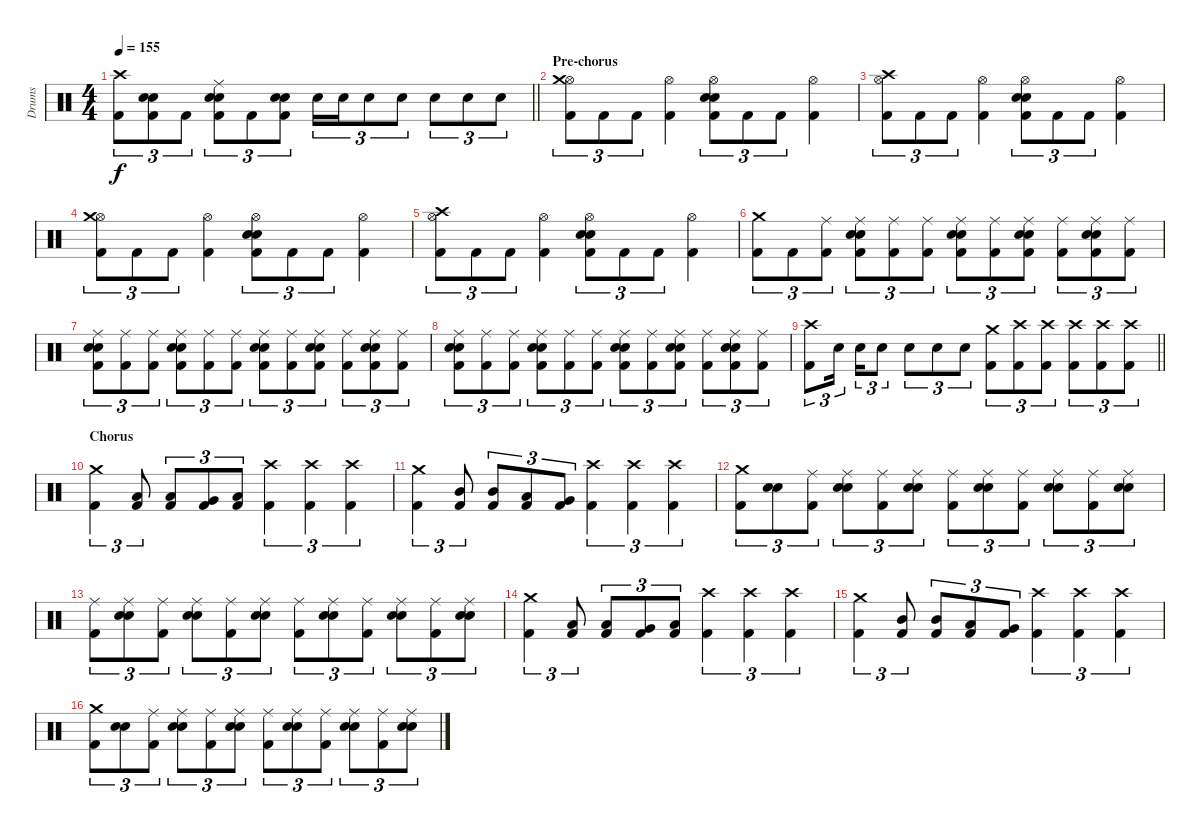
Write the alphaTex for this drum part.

\track ("Drums" "Drums") {instrument percussion}
\staff {score}
\articulation defaults
\ts (4 4)
\tempo 155
\clef neutral
\barLineRight lightlight
\ks c
("Crash high (hit)" "Kick (hit) 2").8{tu (3 2) dy f} ("Electric Snare (hit)" "Electric Snare (hit)" "Kick (hit) 2").8{tu (3 2)} "Kick (hit) 2".8{tu (3 2)} ("Ride (middle)" "Electric Snare (hit)" "Electric Snare (hit)" "Kick (hit) 2").8{tu (3 2)} "Kick (hit) 2".8{tu (3 2)} ("Electric Snare (hit)" "Electric Snare (hit)" "Kick (hit) 2").8{tu (3 2)} "Electric Snare (hit)".16{tu (3 2)} "Electric Snare (hit)".16{tu (3 2)} "Electric Snare (hit)".8{tu (3 2)} "Electric Snare (hit)".8{tu (3 2)} "Electric Snare (hit)".8{tu (3 2)} "Electric Snare (hit)".8{tu (3 2)} "Electric Snare (hit)".8{tu (3 2)} |
\section ("" "Pre-chorus")
("Hi-Hat (open)" "Crash medium (hit)" "Kick (hit) 2").8{tu (3 2)} "Kick (hit) 2".8{tu (3 2)} "Kick (hit) 2".8{tu (3 2)} ("Hi-Hat (open)" "Kick (hit) 2").4 ("Hi-Hat (open)" "Electric Snare (hit)" "Electric Snare (hit)" "Kick (hit) 2").8{tu (3 2)} "Kick (hit) 2".8{tu (3 2)} "Kick (hit) 2".8{tu (3 2)} ("Hi-Hat (open)" "Kick (hit) 2").4 |
("Hi-Hat (open)" "Crash high (hit)" "Kick (hit) 2").8{tu (3 2)} "Kick (hit) 2".8{tu (3 2)} "Kick (hit) 2".8{tu (3 2)} ("Hi-Hat (open)" "Kick (hit) 2").4 ("Hi-Hat (open)" "Electric Snare (hit)" "Electric Snare (hit)" "Kick (hit) 2").8{tu (3 2)} "Kick (hit) 2".8{tu (3 2)} "Kick (hit) 2".8{tu (3 2)} ("Hi-Hat (open)" "Kick (hit) 2").4 |
("Hi-Hat (open)" "Crash medium (hit)" "Kick (hit) 2").8{tu (3 2)} "Kick (hit) 2".8{tu (3 2)} "Kick (hit) 2".8{tu (3 2)} ("Hi-Hat (open)" "Kick (hit) 2").4 ("Hi-Hat (open)" "Electric Snare (hit)" "Electric Snare (hit)" "Kick (hit) 2").8{tu (3 2)} "Kick (hit) 2".8{tu (3 2)} "Kick (hit) 2".8{tu (3 2)} ("Hi-Hat (open)" "Kick (hit) 2").4 |
("Hi-Hat (open)" "Crash high (hit)" "Kick (hit) 2").8{tu (3 2)} "Kick (hit) 2".8{tu (3 2)} "Kick (hit) 2".8{tu (3 2)} ("Hi-Hat (open)" "Kick (hit) 2").4 ("Hi-Hat (open)" "Electric Snare (hit)" "Electric Snare (hit)" "Kick (hit) 2").8{tu (3 2)} "Kick (hit) 2".8{tu (3 2)} "Kick (hit) 2".8{tu (3 2)} ("Hi-Hat (open)" "Kick (hit) 2").4 |
("Crash medium (hit)" "Kick (hit) 2").8{tu (3 2)} "Kick (hit) 2".8{tu (3 2)} ("Ride (middle)" "Kick (hit) 2").8{tu (3 2)} ("Ride (middle)" "Electric Snare (hit)" "Electric Snare (hit)" "Kick (hit) 2").8{tu (3 2)} ("Ride (middle)" "Kick (hit) 2").8{tu (3 2)} ("Ride (middle)" "Kick (hit) 2").8{tu (3 2)} ("Ride (middle)" "Electric Snare (hit)" "Electric Snare (hit)" "Kick (hit) 2").8{tu (3 2)} ("Ride (middle)" "Kick (hit) 2").8{tu (3 2)} ("Ride (middle)" "Electric Snare (hit)" "Electric Snare (hit)" "Kick (hit) 2").8{tu (3 2)} ("Ride (middle)" "Kick (hit) 2").8{tu (3 2)} ("Ride (middle)" "Electric Snare (hit)" "Electric Snare (hit)" "Kick (hit) 2").8{tu (3 2)} ("Ride (middle)" "Kick (hit) 2").8{tu (3 2)} |
("Ride (middle)" "Electric Snare (hit)" "Electric Snare (hit)" "Kick (hit) 2").8{tu (3 2)} ("Ride (middle)" "Kick (hit) 2").8{tu (3 2)} ("Ride (middle)" "Kick (hit) 2").8{tu (3 2)} ("Ride (middle)" "Electric Snare (hit)" "Electric Snare (hit)" "Kick (hit) 2").8{tu (3 2)} ("Ride (middle)" "Kick (hit) 2").8{tu (3 2)} ("Ride (middle)" "Kick (hit) 2").8{tu (3 2)} ("Ride (middle)" "Electric Snare (hit)" "Electric Snare (hit)" "Kick (hit) 2").8{tu (3 2)} ("Ride (middle)" "Kick (hit) 2").8{tu (3 2)} ("Ride (middle)" "Electric Snare (hit)" "Electric Snare (hit)" "Kick (hit) 2").8{tu (3 2)} ("Ride (middle)" "Kick (hit) 2").8{tu (3 2)} ("Ride (middle)" "Electric Snare (hit)" "Electric Snare (hit)" "Kick (hit) 2").8{tu (3 2)} ("Ride (middle)" "Kick (hit) 2").8{tu (3 2)} |
("Ride (middle)" "Electric Snare (hit)" "Electric Snare (hit)" "Kick (hit) 2").8{tu (3 2)} ("Ride (middle)" "Kick (hit) 2").8{tu (3 2)} ("Ride (middle)" "Kick (hit) 2").8{tu (3 2)} ("Ride (middle)" "Electric Snare (hit)" "Electric Snare (hit)" "Kick (hit) 2").8{tu (3 2)} ("Ride (middle)" "Kick (hit) 2").8{tu (3 2)} ("Ride (middle)" "Kick (hit) 2").8{tu (3 2)} ("Ride (middle)" "Electric Snare (hit)" "Electric Snare (hit)" "Kick (hit) 2").8{tu (3 2)} ("Ride (middle)" "Kick (hit) 2").8{tu (3 2)} ("Ride (middle)" "Electric Snare (hit)" "Electric Snare (hit)" "Kick (hit) 2").8{tu (3 2)} ("Ride (middle)" "Kick (hit) 2").8{tu (3 2)} ("Ride (middle)" "Electric Snare (hit)" "Electric Snare (hit)" "Kick (hit) 2").8{tu (3 2)} ("Ride (middle)" "Kick (hit) 2").8{tu (3 2)} |
\barLineRight lightlight
("Crash high (hit)" "Kick (hit) 2").8{tu (3 2)} "Electric Snare (hit)".16{tu (3 2) beam splitsecondary} "Electric Snare (hit)".16{tu (3 2)} "Electric Snare (hit)".8{tu (3 2)} "Electric Snare (hit)".8{tu (3 2)} "Electric Snare (hit)".8{tu (3 2)} "Electric Snare (hit)".8{tu (3 2)} ("Crash medium (hit)" "Kick (hit) 2").8{tu (3 2)} ("Crash high (hit)" "Kick (hit) 2").8{tu (3 2)} ("Crash high (hit)" "Kick (hit) 2").8{tu (3 2)} ("Crash high (hit)" "Kick (hit) 2").8{tu (3 2)} ("Crash high (hit)" "Kick (hit) 2").8{tu (3 2)} ("Crash high (hit)" "Kick (hit) 2").8{tu (3 2)} |
\section ("" "Chorus")
("Crash medium (hit)" "Kick (hit) 2").4{tu (3 2)} ("Low Tom (hit)" "Kick (hit) 2").8{tu (3 2)} ("Low Tom (hit)" "Kick (hit) 2").8{tu (3 2)} ("Very Low Tom (hit)" "Kick (hit) 2").8{tu (3 2)} ("Low Floor Tom (hit)" "Kick (hit) 2").8{tu (3 2)} ("Crash high (hit)" "Kick (hit) 2").4{tu (3 2)} ("Crash high (hit)" "Kick (hit) 2").4{tu (3 2)} ("Crash high (hit)" "Kick (hit) 2").4{tu (3 2)} |
("Crash medium (hit)" "Kick (hit) 2").4{tu (3 2)} ("Mid Tom (hit)" "Kick (hit) 2").8{tu (3 2)} ("Mid Tom (hit)" "Kick (hit) 2").8{tu (3 2)} ("Low Tom (hit)" "Kick (hit) 2").8{tu (3 2)} ("Very Low Tom (hit)" "Kick (hit) 2").8{tu (3 2)} ("Crash high (hit)" "Kick (hit) 2").4{tu (3 2)} ("Crash high (hit)" "Kick (hit) 2").4{tu (3 2)} ("Crash high (hit)" "Kick (hit) 2").4{tu (3 2)} |
("Crash medium (hit)" "Kick (hit) 2").8{tu (3 2)} ("Electric Snare (hit)" "Electric Snare (hit)").8{tu (3 2)} ("Ride (middle)" "Kick (hit) 2").8{tu (3 2)} ("Ride (middle)" "Electric Snare (hit)" "Electric Snare (hit)").8{tu (3 2)} ("Ride (middle)" "Kick (hit) 2").8{tu (3 2)} ("Ride (middle)" "Electric Snare (hit)" "Electric Snare (hit)").8{tu (3 2)} ("Ride (middle)" "Kick (hit) 2").8{tu (3 2)} ("Ride (middle)" "Electric Snare (hit)" "Electric Snare (hit)").8{tu (3 2)} ("Ride (middle)" "Kick (hit) 2").8{tu (3 2)} ("Ride (middle)" "Electric Snare (hit)" "Electric Snare (hit)").8{tu (3 2)} ("Ride (middle)" "Kick (hit) 2").8{tu (3 2)} ("Ride (middle)" "Electric Snare (hit)" "Electric Snare (hit)").8{tu (3 2)} |
("Ride (middle)" "Kick (hit) 2").8{tu (3 2)} ("Ride (middle)" "Electric Snare (hit)" "Electric Snare (hit)").8{tu (3 2)} ("Ride (middle)" "Kick (hit) 2").8{tu (3 2)} ("Ride (middle)" "Electric Snare (hit)" "Electric Snare (hit)").8{tu (3 2)} ("Ride (middle)" "Kick (hit) 2").8{tu (3 2)} ("Ride (middle)" "Electric Snare (hit)" "Electric Snare (hit)").8{tu (3 2)} ("Ride (middle)" "Kick (hit) 2").8{tu (3 2)} ("Ride (middle)" "Electric Snare (hit)" "Electric Snare (hit)").8{tu (3 2)} ("Ride (middle)" "Kick (hit) 2").8{tu (3 2)} ("Ride (middle)" "Electric Snare (hit)" "Electric Snare (hit)").8{tu (3 2)} ("Ride (middle)" "Kick (hit) 2").8{tu (3 2)} ("Ride (middle)" "Electric Snare (hit)" "Electric Snare (hit)").8{tu (3 2)} |
("Crash medium (hit)" "Kick (hit) 2").4{tu (3 2)} ("Low Tom (hit)" "Kick (hit) 2").8{tu (3 2)} ("Low Tom (hit)" "Kick (hit) 2").8{tu (3 2)} ("Very Low Tom (hit)" "Kick (hit) 2").8{tu (3 2)} ("Low Floor Tom (hit)" "Kick (hit) 2").8{tu (3 2)} ("Crash high (hit)" "Kick (hit) 2").4{tu (3 2)} ("Crash high (hit)" "Kick (hit) 2").4{tu (3 2)} ("Crash high (hit)" "Kick (hit) 2").4{tu (3 2)} |
("Crash medium (hit)" "Kick (hit) 2").4{tu (3 2)} ("Mid Tom (hit)" "Kick (hit) 2").8{tu (3 2)} ("Mid Tom (hit)" "Kick (hit) 2").8{tu (3 2)} ("Low Tom (hit)" "Kick (hit) 2").8{tu (3 2)} ("Very Low Tom (hit)" "Kick (hit) 2").8{tu (3 2)} ("Crash high (hit)" "Kick (hit) 2").4{tu (3 2)} ("Crash high (hit)" "Kick (hit) 2").4{tu (3 2)} ("Crash high (hit)" "Kick (hit) 2").4{tu (3 2)} |
("Crash medium (hit)" "Kick (hit) 2").8{tu (3 2)} ("Electric Snare (hit)" "Electric Snare (hit)").8{tu (3 2)} ("Ride (middle)" "Kick (hit) 2").8{tu (3 2)} ("Ride (middle)" "Electric Snare (hit)" "Electric Snare (hit)").8{tu (3 2)} ("Ride (middle)" "Kick (hit) 2").8{tu (3 2)} ("Ride (middle)" "Electric Snare (hit)" "Electric Snare (hit)").8{tu (3 2)} ("Ride (middle)" "Kick (hit) 2").8{tu (3 2)} ("Ride (middle)" "Electric Snare (hit)" "Electric Snare (hit)").8{tu (3 2)} ("Ride (middle)" "Kick (hit) 2").8{tu (3 2)} ("Ride (middle)" "Electric Snare (hit)" "Electric Snare (hit)").8{tu (3 2)} ("Ride (middle)" "Kick (hit) 2").8{tu (3 2)} ("Ride (middle)" "Electric Snare (hit)" "Electric Snare (hit)").8{tu (3 2)}
